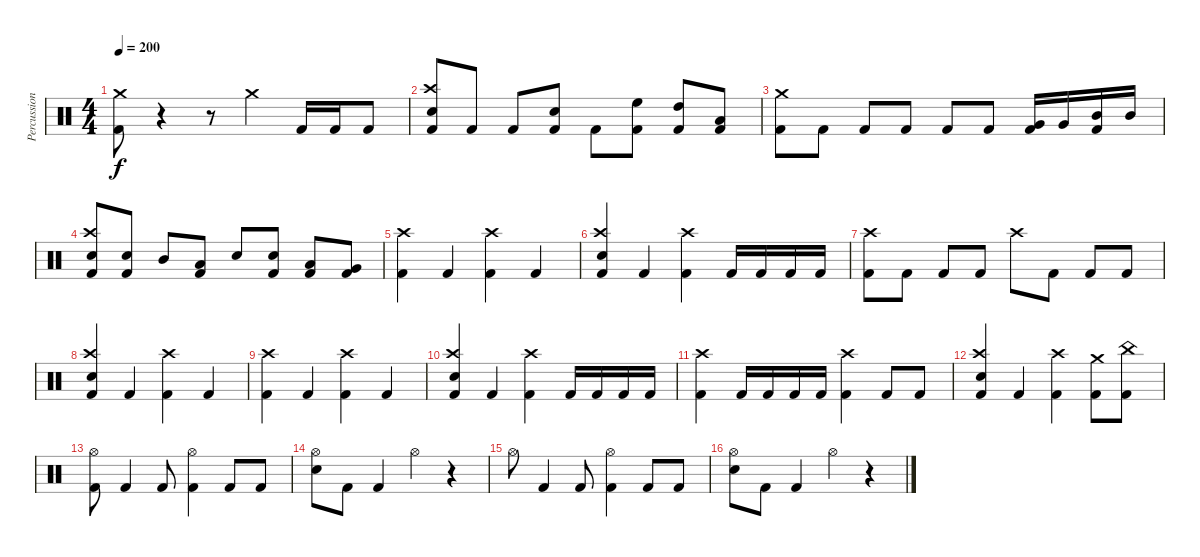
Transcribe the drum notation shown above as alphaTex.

\track ("Percussion" "Percussion") {instrument percussion}
\staff {score}
\articulation defaults
\ts (4 4)
\tempo 200
\clef neutral
\ks c
("Crash medium (hit)" "Kick (hit) 2").8{dy f} r.4 r.8 "Crash medium (hit)".4 "Kick (hit) 2".16 "Kick (hit) 2".16 "Kick (hit) 2".8 |
("Crash high (hit)" "Electric Snare (hit)" "Kick (hit) 2").8 "Kick (hit) 2".8 "Kick (hit) 2".8 ("Electric Snare (hit)" "Kick (hit) 2").8 "Kick (hit) 2".8 ("High Floor Tom (hit)" "Kick (hit) 2").8 ("High Tom (hit)" "Kick (hit) 2").8 ("Low Tom (hit)" "Kick (hit) 2").8 |
("Crash medium (hit)" "Kick (hit) 2").8 "Kick (hit) 2".8 "Kick (hit) 2".8 "Kick (hit) 2".8 "Kick (hit) 2".8 "Kick (hit) 2".8 ("Very Low Tom (hit)" "Kick (hit) 2").16 "Very Low Tom (hit)".16 ("Mid Tom (hit)" "Kick (hit) 2").16 "Mid Tom (hit)".16 |
("Crash high (hit)" "Electric Snare (hit)" "Kick (hit) 2").8 ("Electric Snare (hit)" "Kick (hit) 2").8 "Mid Tom (hit)".8 ("Low Tom (hit)" "Kick (hit) 2").8 "Electric Snare (hit)".8 ("Electric Snare (hit)" "Kick (hit) 2").8 ("Low Tom (hit)" "Kick (hit) 2").8 ("Very Low Tom (hit)" "Kick (hit) 2").8 |
("Crash high (hit)" "Kick (hit) 2").4 "Kick (hit) 2".4 ("Crash high (hit)" "Kick (hit) 2").4 "Kick (hit) 2".4 |
("Crash high (hit)" "Electric Snare (hit)" "Kick (hit) 2").4 "Kick (hit) 2".4 ("Crash high (hit)" "Kick (hit) 2").4 "Kick (hit) 2".16 "Kick (hit) 2".16 "Kick (hit) 2".16 "Kick (hit) 2".16 |
("Crash high (hit)" "Kick (hit) 2").8 "Kick (hit) 2".8 "Kick (hit) 2".8 "Kick (hit) 2".8 "Crash high (hit)".8 "Kick (hit) 2".8 "Kick (hit) 2".8 "Kick (hit) 2".8 |
("Crash high (hit)" "Electric Snare (hit)" "Kick (hit) 2").4 "Kick (hit) 2".4 ("Crash high (hit)" "Kick (hit) 2").4 "Kick (hit) 2".4 |
("Crash high (hit)" "Kick (hit) 2").4 "Kick (hit) 2".4 ("Crash high (hit)" "Kick (hit) 2").4 "Kick (hit) 2".4 |
("Crash high (hit)" "Electric Snare (hit)" "Kick (hit) 2").4 "Kick (hit) 2".4 ("Crash high (hit)" "Kick (hit) 2").4 "Kick (hit) 2".16 "Kick (hit) 2".16 "Kick (hit) 2".16 "Kick (hit) 2".16 |
("Crash high (hit)" "Kick (hit) 2").4 "Kick (hit) 2".16 "Kick (hit) 2".16 "Kick (hit) 2".16 "Kick (hit) 2".16 ("Crash high (hit)" "Kick (hit) 2").4 "Kick (hit) 2".8 "Kick (hit) 2".8 |
("Crash high (hit)" "Electric Snare (hit)" "Kick (hit) 2").4 "Kick (hit) 2".4 ("Crash high (hit)" "Kick (hit) 2").4 ("Crash medium (hit)" "Kick (hit) 2").8 ("China (hit)" "Kick (hit) 2").8 |
("Hi-Hat (open)" "Kick (hit) 2").8 "Kick (hit) 2".4 "Kick (hit) 2".8 ("Hi-Hat (open)" "Kick (hit) 2").4 "Kick (hit) 2".8 "Kick (hit) 2".8 |
("Hi-Hat (open)" "Electric Snare (hit)").8 "Kick (hit) 2".8 "Kick (hit) 2".4 "Hi-Hat (open)".4 r.4 |
"Hi-Hat (open)".8 "Kick (hit) 2".4 "Kick (hit) 2".8 ("Hi-Hat (open)" "Kick (hit) 2").4 "Kick (hit) 2".8 "Kick (hit) 2".8 |
("Hi-Hat (open)" "Electric Snare (hit)").8 "Kick (hit) 2".8 "Kick (hit) 2".4 "Hi-Hat (open)".4 r.4
